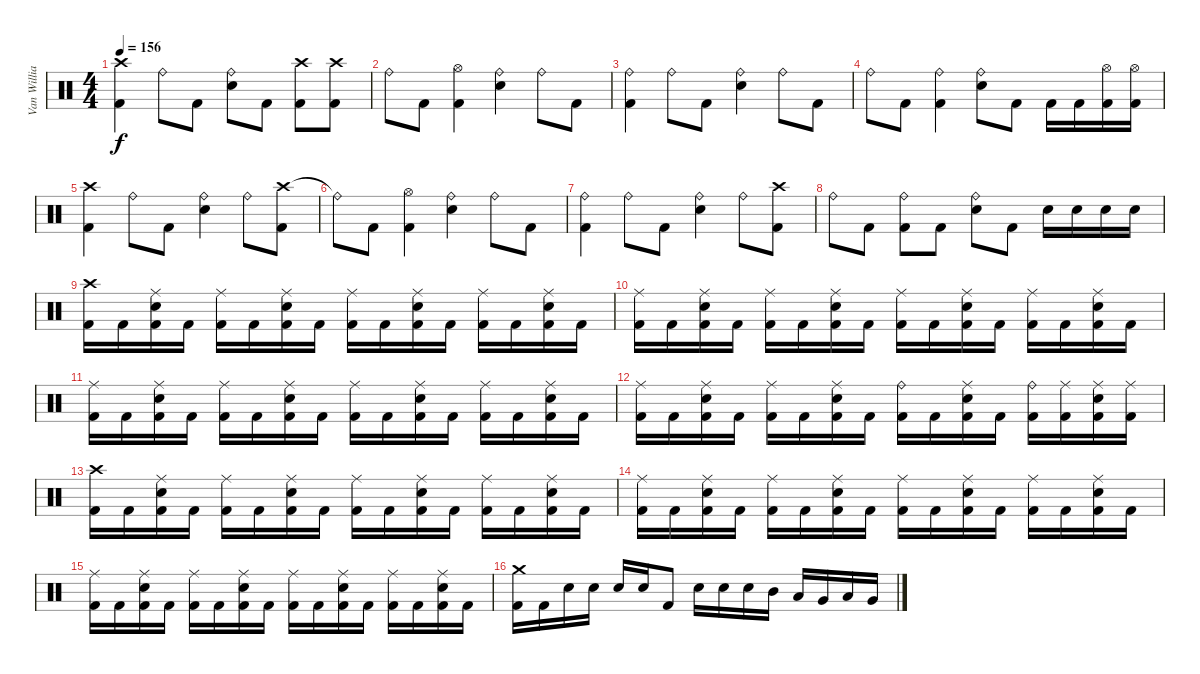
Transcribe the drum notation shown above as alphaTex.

\track ("Van Williams" "Van Willia") {instrument percussion}
\staff {score}
\articulation defaults
\ts (4 4)
\tempo 156
\clef neutral
\ks c
("Crash high (hit)" "Kick (hit) 2").4{dy f} "Ride (bell)".8 "Kick (hit) 2".8 ("Ride (bell)" "Electric Snare (hit)").8 "Kick (hit) 2".8 ("Crash high (hit)" "Kick (hit) 2").8 ("Crash high (hit)" "Kick (hit) 2").8 |
"Ride (bell)".8 "Kick (hit) 2".8 ("Hi-Hat (open)" "Kick (hit) 2").4 ("Ride (bell)" "Electric Snare (hit)").4 "Ride (bell)".8 "Kick (hit) 2".8 |
("Ride (bell)" "Kick (hit) 2").4 "Ride (bell)".8 "Kick (hit) 2".8 ("Ride (bell)" "Electric Snare (hit)").4 "Ride (bell)".8 "Kick (hit) 2".8 |
"Ride (bell)".8 "Kick (hit) 2".8 ("Ride (bell)" "Kick (hit) 2").4 ("Ride (bell)" "Electric Snare (hit)").8 "Kick (hit) 2".8 "Kick (hit) 2".16 "Kick (hit) 2".16 ("Hi-Hat (open)" "Kick (hit) 2").16 ("Hi-Hat (open)" "Kick (hit) 2").16 |
("Crash high (hit)" "Kick (hit) 2").4 "Ride (bell)".8 "Kick (hit) 2".8 ("Ride (bell)" "Electric Snare (hit)").4 "Ride (bell)".8 ("Crash high (hit)" "Kick (hit) 2").8 |
"Ride (bell)"{t}.8 "Kick (hit) 2".8 ("Hi-Hat (open)" "Kick (hit) 2").4 ("Ride (bell)" "Electric Snare (hit)").4 "Ride (bell)".8 "Kick (hit) 2".8 |
("Ride (bell)" "Kick (hit) 2").4 "Ride (bell)".8 "Kick (hit) 2".8 ("Ride (bell)" "Electric Snare (hit)").4 "Ride (bell)".8 ("Crash high (hit)" "Kick (hit) 2").8 |
"Ride (bell)".8 "Kick (hit) 2".8 ("Ride (bell)" "Kick (hit) 2").8 "Kick (hit) 2".8 ("Ride (bell)" "Electric Snare (hit)").8 "Kick (hit) 2".8 "Electric Snare (hit)".16 "Electric Snare (hit)".16 "Electric Snare (hit)".16 "Electric Snare (hit)".16 |
\section ("" "")
("Crash high (hit)" "Kick (hit) 2").16 "Kick (hit) 2".16 ("Ride (middle)" "Electric Snare (hit)" "Kick (hit) 2").16 "Kick (hit) 2".16 ("Ride (middle)" "Kick (hit) 2").16 "Kick (hit) 2".16 ("Ride (middle)" "Electric Snare (hit)" "Kick (hit) 2").16 "Kick (hit) 2".16 ("Ride (middle)" "Kick (hit) 2").16 "Kick (hit) 2".16 ("Ride (middle)" "Electric Snare (hit)" "Kick (hit) 2").16 "Kick (hit) 2".16 ("Ride (middle)" "Kick (hit) 2").16 "Kick (hit) 2".16 ("Ride (middle)" "Electric Snare (hit)" "Kick (hit) 2").16 "Kick (hit) 2".16 |
("Ride (middle)" "Kick (hit) 2").16 "Kick (hit) 2".16 ("Ride (middle)" "Electric Snare (hit)" "Kick (hit) 2").16 "Kick (hit) 2".16 ("Ride (middle)" "Kick (hit) 2").16 "Kick (hit) 2".16 ("Ride (middle)" "Electric Snare (hit)" "Kick (hit) 2").16 "Kick (hit) 2".16 ("Ride (middle)" "Kick (hit) 2").16 "Kick (hit) 2".16 ("Ride (middle)" "Electric Snare (hit)" "Kick (hit) 2").16 "Kick (hit) 2".16 ("Ride (middle)" "Kick (hit) 2").16 "Kick (hit) 2".16 ("Ride (middle)" "Electric Snare (hit)" "Kick (hit) 2").16 "Kick (hit) 2".16 |
("Ride (middle)" "Kick (hit) 2").16 "Kick (hit) 2".16 ("Ride (middle)" "Electric Snare (hit)" "Kick (hit) 2").16 "Kick (hit) 2".16 ("Ride (middle)" "Kick (hit) 2").16 "Kick (hit) 2".16 ("Ride (middle)" "Electric Snare (hit)" "Kick (hit) 2").16 "Kick (hit) 2".16 ("Ride (middle)" "Kick (hit) 2").16 "Kick (hit) 2".16 ("Ride (middle)" "Electric Snare (hit)" "Kick (hit) 2").16 "Kick (hit) 2".16 ("Ride (middle)" "Kick (hit) 2").16 "Kick (hit) 2".16 ("Ride (middle)" "Electric Snare (hit)" "Kick (hit) 2").16 "Kick (hit) 2".16 |
("Ride (middle)" "Kick (hit) 2").16 "Kick (hit) 2".16 ("Ride (middle)" "Electric Snare (hit)" "Kick (hit) 2").16 "Kick (hit) 2".16 ("Ride (middle)" "Kick (hit) 2").16 "Kick (hit) 2".16 ("Ride (middle)" "Electric Snare (hit)" "Kick (hit) 2").16 "Kick (hit) 2".16 ("Ride (bell)" "Kick (hit) 2").16 "Kick (hit) 2".16 ("Ride (middle)" "Electric Snare (hit)" "Kick (hit) 2").16 "Kick (hit) 2".16 ("Ride (bell)" "Kick (hit) 2").16 ("Ride (middle)" "Kick (hit) 2").16 ("Ride (middle)" "Electric Snare (hit)" "Kick (hit) 2").16 ("Ride (middle)" "Kick (hit) 2").16 |
("Crash high (hit)" "Kick (hit) 2").16 "Kick (hit) 2".16 ("Ride (middle)" "Electric Snare (hit)" "Kick (hit) 2").16 "Kick (hit) 2".16 ("Ride (middle)" "Kick (hit) 2").16 "Kick (hit) 2".16 ("Ride (middle)" "Electric Snare (hit)" "Kick (hit) 2").16 "Kick (hit) 2".16 ("Ride (middle)" "Kick (hit) 2").16 "Kick (hit) 2".16 ("Ride (middle)" "Electric Snare (hit)" "Kick (hit) 2").16 "Kick (hit) 2".16 ("Ride (middle)" "Kick (hit) 2").16 "Kick (hit) 2".16 ("Ride (middle)" "Electric Snare (hit)" "Kick (hit) 2").16 "Kick (hit) 2".16 |
("Ride (middle)" "Kick (hit) 2").16 "Kick (hit) 2".16 ("Ride (middle)" "Electric Snare (hit)" "Kick (hit) 2").16 "Kick (hit) 2".16 ("Ride (middle)" "Kick (hit) 2").16 "Kick (hit) 2".16 ("Ride (middle)" "Electric Snare (hit)" "Kick (hit) 2").16 "Kick (hit) 2".16 ("Ride (middle)" "Kick (hit) 2").16 "Kick (hit) 2".16 ("Ride (middle)" "Electric Snare (hit)" "Kick (hit) 2").16 "Kick (hit) 2".16 ("Ride (middle)" "Kick (hit) 2").16 "Kick (hit) 2".16 ("Ride (middle)" "Electric Snare (hit)" "Kick (hit) 2").16 "Kick (hit) 2".16 |
("Ride (middle)" "Kick (hit) 2").16 "Kick (hit) 2".16 ("Ride (middle)" "Electric Snare (hit)" "Kick (hit) 2").16 "Kick (hit) 2".16 ("Ride (middle)" "Kick (hit) 2").16 "Kick (hit) 2".16 ("Ride (middle)" "Electric Snare (hit)" "Kick (hit) 2").16 "Kick (hit) 2".16 ("Ride (middle)" "Kick (hit) 2").16 "Kick (hit) 2".16 ("Ride (middle)" "Electric Snare (hit)" "Kick (hit) 2").16 "Kick (hit) 2".16 ("Ride (middle)" "Kick (hit) 2").16 "Kick (hit) 2".16 ("Ride (middle)" "Electric Snare (hit)" "Kick (hit) 2").16 "Kick (hit) 2".16 |
("Crash medium (hit)" "Kick (hit) 2").16 "Kick (hit) 2".16 "Electric Snare (hit)".16 "Electric Snare (hit)".16 "Electric Snare (hit)".16 "Electric Snare (hit)".16 "Kick (hit) 2".8 "Electric Snare (hit)".16 "Electric Snare (hit)".16 "Electric Snare (hit)".16 "Mid Tom (hit)".16 "Low Tom (hit)".16 "Very Low Tom (hit)".16 "Low Tom (hit)".16 "Very Low Tom (hit)".16
